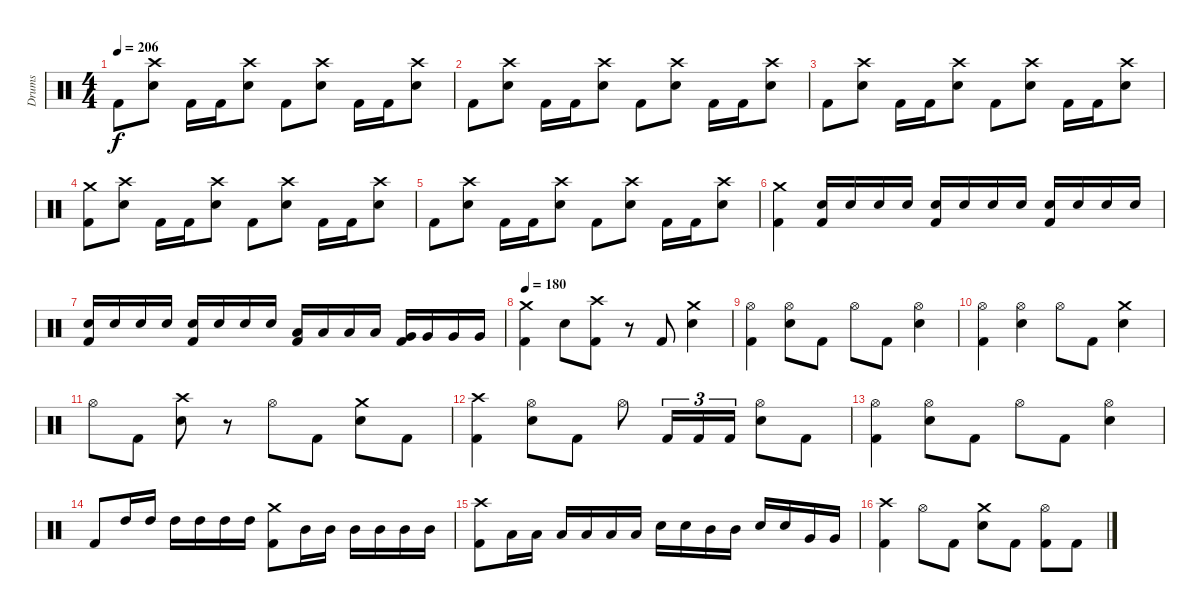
\track ("Drums" "Drums") {instrument percussion}
\staff {score}
\articulation defaults
\ts (4 4)
\tempo 206
\clef neutral
\ks c "Kick (hit) 2".8{dy f}
("Crash high (hit)" "Electric Snare (hit)").8 "Kick (hit) 2".16 "Kick (hit) 2".16 ("Crash high (hit)" "Electric Snare (hit)").8 "Kick (hit) 2".8 ("Crash high (hit)" "Electric Snare (hit)").8 "Kick (hit) 2".16 "Kick (hit) 2".16 ("Crash high (hit)" "Electric Snare (hit)").8 |
"Kick (hit) 2".8 ("Crash high (hit)" "Electric Snare (hit)").8 "Kick (hit) 2".16 "Kick (hit) 2".16 ("Crash high (hit)" "Electric Snare (hit)").8 "Kick (hit) 2".8 ("Crash high (hit)" "Electric Snare (hit)").8 "Kick (hit) 2".16 "Kick (hit) 2".16 ("Crash high (hit)" "Electric Snare (hit)").8 |
"Kick (hit) 2".8 ("Crash high (hit)" "Electric Snare (hit)").8 "Kick (hit) 2".16 "Kick (hit) 2".16 ("Crash high (hit)" "Electric Snare (hit)").8 "Kick (hit) 2".8 ("Crash high (hit)" "Electric Snare (hit)").8 "Kick (hit) 2".16 "Kick (hit) 2".16 ("Crash high (hit)" "Electric Snare (hit)").8 |
("Crash medium (hit)" "Kick (hit) 2").8 ("Crash high (hit)" "Electric Snare (hit)").8 "Kick (hit) 2".16 "Kick (hit) 2".16 ("Crash high (hit)" "Electric Snare (hit)").8 "Kick (hit) 2".8 ("Crash high (hit)" "Electric Snare (hit)").8 "Kick (hit) 2".16 "Kick (hit) 2".16 ("Crash high (hit)" "Electric Snare (hit)").8 |
"Kick (hit) 2".8 ("Crash high (hit)" "Electric Snare (hit)").8 "Kick (hit) 2".16 "Kick (hit) 2".16 ("Crash high (hit)" "Electric Snare (hit)").8 "Kick (hit) 2".8 ("Crash high (hit)" "Electric Snare (hit)").8 "Kick (hit) 2".16 "Kick (hit) 2".16 ("Crash high (hit)" "Electric Snare (hit)").8 |
("Crash medium (hit)" "Kick (hit) 2").4 ("Electric Snare (hit)" "Kick (hit) 2").16 "Electric Snare (hit)".16 "Electric Snare (hit)".16 "Electric Snare (hit)".16 ("Electric Snare (hit)" "Kick (hit) 2").16 "Electric Snare (hit)".16 "Electric Snare (hit)".16 "Electric Snare (hit)".16 ("Electric Snare (hit)" "Kick (hit) 2").16 "Electric Snare (hit)".16 "Electric Snare (hit)".16 "Electric Snare (hit)".16 |
("Electric Snare (hit)" "Kick (hit) 2").16 "Electric Snare (hit)".16 "Electric Snare (hit)".16 "Electric Snare (hit)".16 ("Electric Snare (hit)" "Kick (hit) 2").16 "Electric Snare (hit)".16 "Electric Snare (hit)".16 "Electric Snare (hit)".16 ("Low Tom (hit)" "Kick (hit) 2").16 "Low Tom (hit)".16 "Low Tom (hit)".16 "Low Tom (hit)".16 ("Very Low Tom (hit)" "Kick (hit) 2").16 "Very Low Tom (hit)".16 "Very Low Tom (hit)".16 "Very Low Tom (hit)".16 |
\tempo 180
("Crash medium (hit)" "Kick (hit) 2").4 "Electric Snare (hit)".8 ("Crash high (hit)" "Kick (hit) 2").8 r.8 "Kick (hit) 2".8 ("Crash medium (hit)" "Electric Snare (hit)").4 |
("Hi-Hat (open)" "Kick (hit) 2").4 ("Hi-Hat (open)" "Electric Snare (hit)").8 "Kick (hit) 2".8 "Hi-Hat (open)".8 "Kick (hit) 2".8 ("Hi-Hat (open)" "Electric Snare (hit)").4 |
("Hi-Hat (open)" "Kick (hit) 2").4 ("Hi-Hat (open)" "Electric Snare (hit)").4 "Hi-Hat (open)".8 "Kick (hit) 2".8 ("Crash medium (hit)" "Electric Snare (hit)").4 |
"Hi-Hat (open)".8 "Kick (hit) 2".8 ("Crash high (hit)" "Electric Snare (hit)").8 r.8 "Hi-Hat (open)".8 "Kick (hit) 2".8 ("Crash medium (hit)" "Electric Snare (hit)").8 "Kick (hit) 2".8 |
("Crash high (hit)" "Kick (hit) 2").4 ("Hi-Hat (open)" "Electric Snare (hit)").8 "Kick (hit) 2".8 "Hi-Hat (open)".8 "Kick (hit) 2".16{tu (3 2)} "Kick (hit) 2".16{tu (3 2)} "Kick (hit) 2".16{tu (3 2)} ("Hi-Hat (open)" "Electric Snare (hit)").8 "Kick (hit) 2".8 |
("Hi-Hat (open)" "Kick (hit) 2").4 ("Hi-Hat (open)" "Electric Snare (hit)").8 "Kick (hit) 2".8 "Hi-Hat (open)".8 "Kick (hit) 2".8 ("Hi-Hat (open)" "Electric Snare (hit)").4 |
"Kick (hit) 2".8 "High Tom (hit)".16{balance 0} "High Tom (hit)".16 "High Tom (hit)".16 "High Tom (hit)".16 "High Tom (hit)".16 "High Tom (hit)".16 ("Crash medium (hit)" "Kick (hit) 2").8{balance 8} "Mid Tom (hit)".16 "Mid Tom (hit)".16 "Mid Tom (hit)".16 "Mid Tom (hit)".16 "Mid Tom (hit)".16 "Mid Tom (hit)".16 |
("Crash high (hit)" "Kick (hit) 2").8 "Low Tom (hit)".16{balance 16} "Low Tom (hit)".16 "Low Tom (hit)".16 "Low Tom (hit)".16 "Low Tom (hit)".16 "Low Tom (hit)".16 "Electric Snare (hit)".16{balance 8} "Electric Snare (hit)".16 "Mid Tom (hit)".16 "Mid Tom (hit)".16 "Electric Snare (hit)".16 "Electric Snare (hit)".16 "Very Low Tom (hit)".16 "Very Low Tom (hit)".16 |
("Crash high (hit)" "Kick (hit) 2").4 "Hi-Hat (open)".8 "Kick (hit) 2".8 ("Crash medium (hit)" "Electric Snare (hit)").8 "Kick (hit) 2".8 ("Hi-Hat (open)" "Kick (hit) 2").8 "Kick (hit) 2".8
